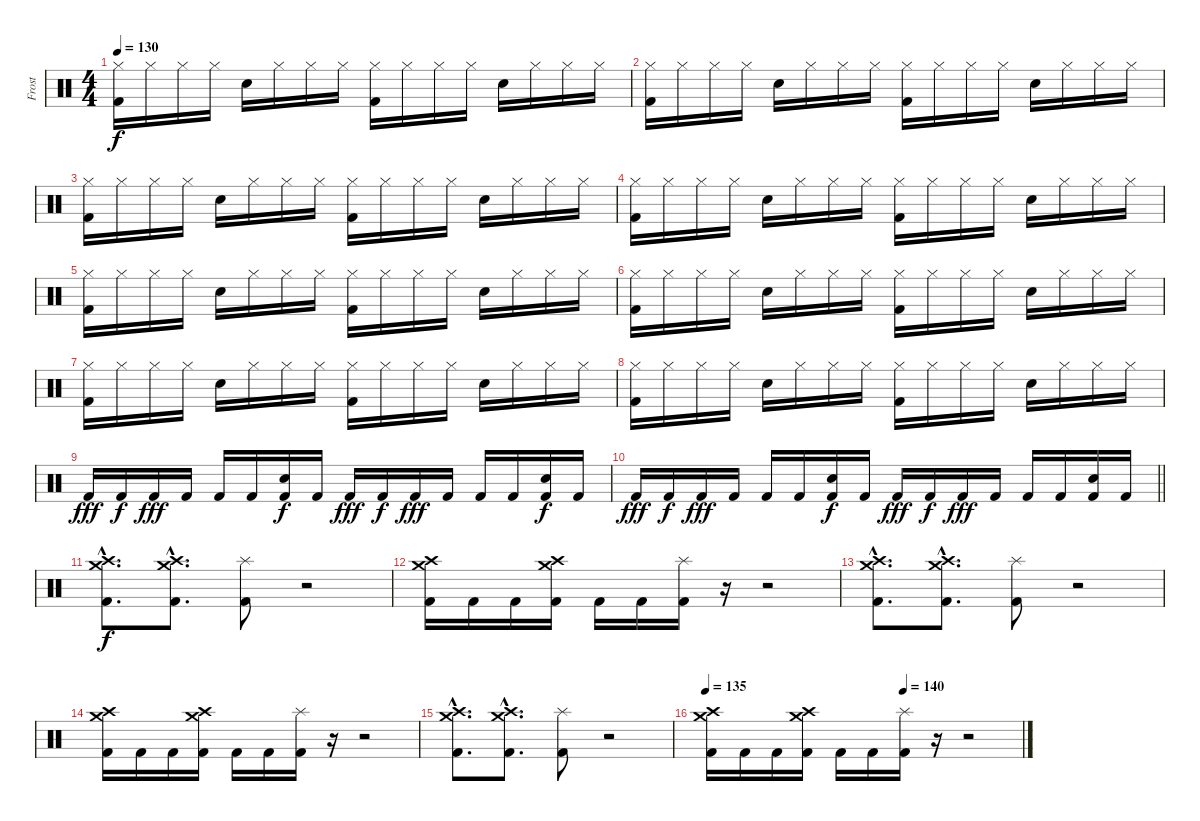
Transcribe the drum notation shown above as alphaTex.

\track ("Frost" "Frost") {instrument percussion}
\staff {score}
\articulation defaults
\ts (4 4)
\tempo 130
\clef neutral
\ks c
("Kick (hit) 2" "Hi-Hat (closed)").16{dy f} "Hi-Hat (closed)".16 "Hi-Hat (closed)".16 "Hi-Hat (closed)".16 "Snare (hit) 2".16 "Hi-Hat (closed)".16 "Hi-Hat (closed)".16 "Hi-Hat (closed)".16 ("Kick (hit) 2" "Hi-Hat (closed)").16 "Hi-Hat (closed)".16 "Hi-Hat (closed)".16 "Hi-Hat (closed)".16 "Snare (hit) 2".16 "Hi-Hat (closed)".16 "Hi-Hat (closed)".16 "Hi-Hat (closed)".16 |
("Kick (hit) 2" "Hi-Hat (closed)").16 "Hi-Hat (closed)".16 "Hi-Hat (closed)".16 "Hi-Hat (closed)".16 "Snare (hit) 2".16 "Hi-Hat (closed)".16 "Hi-Hat (closed)".16 "Hi-Hat (closed)".16 ("Kick (hit) 2" "Hi-Hat (closed)").16 "Hi-Hat (closed)".16 "Hi-Hat (closed)".16 "Hi-Hat (closed)".16 "Snare (hit) 2".16 "Hi-Hat (closed)".16 "Hi-Hat (closed)".16 "Hi-Hat (closed)".16 |
("Kick (hit) 2" "Hi-Hat (closed)").16 "Hi-Hat (closed)".16 "Hi-Hat (closed)".16 "Hi-Hat (closed)".16 "Snare (hit) 2".16 "Hi-Hat (closed)".16 "Hi-Hat (closed)".16 "Hi-Hat (closed)".16 ("Kick (hit) 2" "Hi-Hat (closed)").16 "Hi-Hat (closed)".16 "Hi-Hat (closed)".16 "Hi-Hat (closed)".16 "Snare (hit) 2".16 "Hi-Hat (closed)".16 "Hi-Hat (closed)".16 "Hi-Hat (closed)".16 |
("Kick (hit) 2" "Hi-Hat (closed)").16 "Hi-Hat (closed)".16 "Hi-Hat (closed)".16 "Hi-Hat (closed)".16 "Snare (hit) 2".16 "Hi-Hat (closed)".16 "Hi-Hat (closed)".16 "Hi-Hat (closed)".16 ("Kick (hit) 2" "Hi-Hat (closed)").16 "Hi-Hat (closed)".16 "Hi-Hat (closed)".16 "Hi-Hat (closed)".16 "Snare (hit) 2".16 "Hi-Hat (closed)".16 "Hi-Hat (closed)".16 "Hi-Hat (closed)".16 |
("Kick (hit) 2" "Hi-Hat (closed)").16 "Hi-Hat (closed)".16 "Hi-Hat (closed)".16 "Hi-Hat (closed)".16 "Snare (hit) 2".16 "Hi-Hat (closed)".16 "Hi-Hat (closed)".16 "Hi-Hat (closed)".16 ("Kick (hit) 2" "Hi-Hat (closed)").16 "Hi-Hat (closed)".16 "Hi-Hat (closed)".16 "Hi-Hat (closed)".16 "Snare (hit) 2".16 "Hi-Hat (closed)".16 "Hi-Hat (closed)".16 "Hi-Hat (closed)".16 |
("Kick (hit) 2" "Hi-Hat (closed)").16 "Hi-Hat (closed)".16 "Hi-Hat (closed)".16 "Hi-Hat (closed)".16 "Snare (hit) 2".16 "Hi-Hat (closed)".16 "Hi-Hat (closed)".16 "Hi-Hat (closed)".16 ("Kick (hit) 2" "Hi-Hat (closed)").16 "Hi-Hat (closed)".16 "Hi-Hat (closed)".16 "Hi-Hat (closed)".16 "Snare (hit) 2".16 "Hi-Hat (closed)".16 "Hi-Hat (closed)".16 "Hi-Hat (closed)".16 |
("Kick (hit) 2" "Hi-Hat (closed)").16 "Hi-Hat (closed)".16 "Hi-Hat (closed)".16 "Hi-Hat (closed)".16 "Snare (hit) 2".16 "Hi-Hat (closed)".16 "Hi-Hat (closed)".16 "Hi-Hat (closed)".16 ("Kick (hit) 2" "Hi-Hat (closed)").16 "Hi-Hat (closed)".16 "Hi-Hat (closed)".16 "Hi-Hat (closed)".16 "Snare (hit) 2".16 "Hi-Hat (closed)".16 "Hi-Hat (closed)".16 "Hi-Hat (closed)".16 |
("Kick (hit) 2" "Hi-Hat (closed)").16 "Hi-Hat (closed)".16 "Hi-Hat (closed)".16 "Hi-Hat (closed)".16 "Snare (hit) 2".16 "Hi-Hat (closed)".16 "Hi-Hat (closed)".16 "Hi-Hat (closed)".16 ("Kick (hit) 2" "Hi-Hat (closed)").16 "Hi-Hat (closed)".16 "Hi-Hat (closed)".16 "Hi-Hat (closed)".16 "Snare (hit) 2".16 "Hi-Hat (closed)".16 "Hi-Hat (closed)".16 "Hi-Hat (closed)".16 |
"Kick (hit) 2".16{dy fff} "Kick (hit) 2".16{dy f} "Kick (hit) 2".16{dy fff} "Kick (hit) 2".16 "Kick (hit) 2".16 "Kick (hit) 2".16 ("Kick (hit) 2" "Snare (hit) 2").16{dy f} "Kick (hit) 2".16 "Kick (hit) 2".16{dy fff} "Kick (hit) 2".16{dy f} "Kick (hit) 2".16{dy fff} "Kick (hit) 2".16 "Kick (hit) 2".16 "Kick (hit) 2".16 ("Kick (hit) 2" "Snare (hit) 2").16{dy f} "Kick (hit) 2".16 |
\barLineRight lightlight "Kick (hit) 2".16{dy fff} "Kick (hit) 2".16{dy f} "Kick (hit) 2".16{dy fff} "Kick (hit) 2".16 "Kick (hit) 2".16 "Kick (hit) 2".16
("Kick (hit) 2" "Snare (hit) 2").16{dy f} "Kick (hit) 2".16 "Kick (hit) 2".16{dy fff} "Kick (hit) 2".16{dy f} "Kick (hit) 2".16{dy fff} "Kick (hit) 2".16 "Kick (hit) 2".16 "Kick (hit) 2".16 ("Kick (hit) 2" "Snare (hit) 2").16 "Kick (hit) 2".16 |
("Kick (hit) 2"{hac} "Crash medium (hit)"{hac} "Crash high (hit)"{hac}).8{d dy f} ("Kick (hit) 2"{hac} "Crash medium (hit)"{hac} "Crash high (hit)"{hac}).8{d} ("Kick (hit) 2" "Splash (hit)").8 r.2 |
("Kick (hit) 2" "Crash medium (hit)" "Crash high (hit)").16 "Kick (hit) 2".16 "Kick (hit) 2".16 ("Kick (hit) 2" "Crash medium (hit)" "Crash high (hit)").16 "Kick (hit) 2".16 "Kick (hit) 2".16 ("Kick (hit) 2" "Splash (hit)").16 r.16 r.2 |
("Kick (hit) 2"{hac} "Crash medium (hit)"{hac} "Crash high (hit)"{hac}).8{d} ("Kick (hit) 2"{hac} "Crash medium (hit)"{hac} "Crash high (hit)"{hac}).8{d} ("Kick (hit) 2" "Splash (hit)").8 r.2 |
("Kick (hit) 2" "Crash medium (hit)" "Crash high (hit)").16 "Kick (hit) 2".16 "Kick (hit) 2".16 ("Kick (hit) 2" "Crash medium (hit)" "Crash high (hit)").16 "Kick (hit) 2".16 "Kick (hit) 2".16 ("Kick (hit) 2" "Splash (hit)").16 r.16 r.2 |
("Kick (hit) 2"{hac} "Crash medium (hit)"{hac} "Crash high (hit)"{hac}).8{d} ("Kick (hit) 2"{hac} "Crash medium (hit)"{hac} "Crash high (hit)"{hac}).8{d} ("Kick (hit) 2" "Splash (hit)").8 r.2 |
\tempo 135
\tempo (140 0.625)
("Kick (hit) 2" "Crash medium (hit)" "Crash high (hit)").16 "Kick (hit) 2".16 "Kick (hit) 2".16 ("Kick (hit) 2" "Crash medium (hit)" "Crash high (hit)").16 "Kick (hit) 2".16 "Kick (hit) 2".16 ("Kick (hit) 2" "Splash (hit)").16 r.16 r.2
